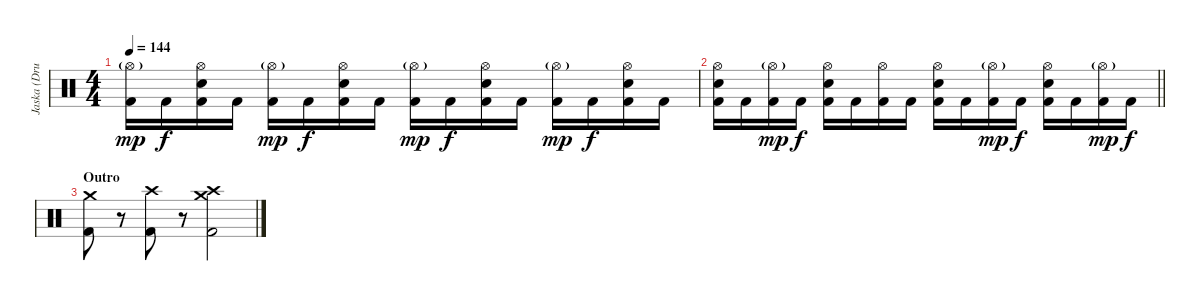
\track ("Jaska (Drums)" "Jaska (Dru") {instrument percussion}
\staff {score}
\articulation defaults
\ts (4 4)
\tempo 144
\clef neutral
\ks c
("Hi-Hat (open)"{g} "Kick (hit) 2").16{dy mp} "Kick (hit) 2".16{dy f} ("Hi-Hat (open)" "Electric Snare (hit)" "Kick (hit) 2").16 "Kick (hit) 2".16 ("Hi-Hat (open)"{g} "Kick (hit) 2").16{dy mp} "Kick (hit) 2".16{dy f} ("Hi-Hat (open)" "Electric Snare (hit)" "Kick (hit) 2").16 "Kick (hit) 2".16 ("Hi-Hat (open)"{g} "Kick (hit) 2").16{dy mp} "Kick (hit) 2".16{dy f} ("Hi-Hat (open)" "Electric Snare (hit)" "Kick (hit) 2").16 "Kick (hit) 2".16 ("Hi-Hat (open)"{g} "Kick (hit) 2").16{dy mp} "Kick (hit) 2".16{dy f} ("Hi-Hat (open)" "Electric Snare (hit)" "Kick (hit) 2").16 "Kick (hit) 2".16 |
\barLineRight lightlight
("Hi-Hat (open)" "Electric Snare (hit)" "Kick (hit) 2").16 "Kick (hit) 2".16 ("Hi-Hat (open)"{g} "Kick (hit) 2").16{dy mp} "Kick (hit) 2".16{dy f} ("Hi-Hat (open)" "Electric Snare (hit)" "Kick (hit) 2").16 "Kick (hit) 2".16 ("Hi-Hat (open)" "Kick (hit) 2").16 "Kick (hit) 2".16 ("Hi-Hat (open)" "Electric Snare (hit)" "Kick (hit) 2").16 "Kick (hit) 2".16 ("Hi-Hat (open)"{g} "Kick (hit) 2").16{dy mp} "Kick (hit) 2".16{dy f} ("Hi-Hat (open)" "Electric Snare (hit)" "Kick (hit) 2").16 "Kick (hit) 2".16 ("Hi-Hat (open)"{g} "Kick (hit) 2").16{dy mp} "Kick (hit) 2".16{dy f} |
\section ("" "Outro")
("Crash medium (hit)" "Kick (hit) 2").8 r.8{volume 0} ("Crash high (hit)" "Kick (hit) 2").8{volume 16} r.8{volume 0} ("Crash medium (hit)" "Crash high (hit)" "Kick (hit) 2").2{volume 16}
